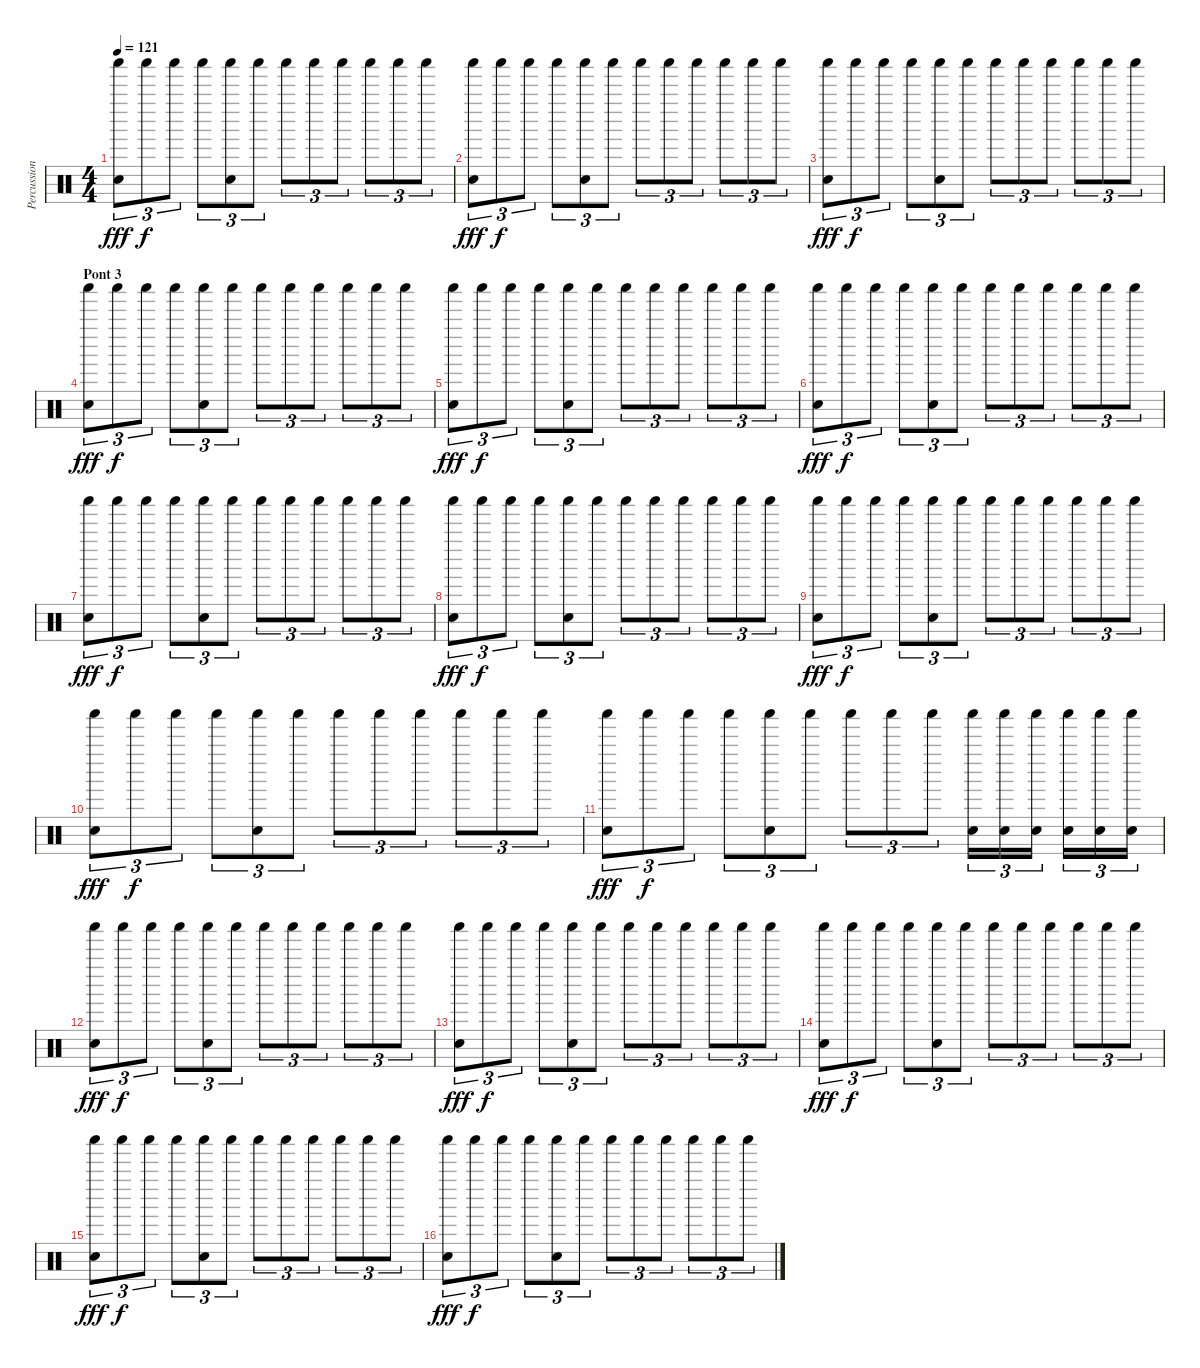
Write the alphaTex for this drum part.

\track ("Percussions" "Percussion") {instrument percussion}
\staff {score}
\articulation defaults
\ts (4 4)
\tempo 121
\clef neutral
\ks c
("Shaker (hit)" "Electric Snare (hit)").8{tu (3 2) dy fff} "Shaker (hit)".8{tu (3 2) dy f} "Shaker (hit)".8{tu (3 2)} "Shaker (hit)".8{tu (3 2)} ("Shaker (hit)" "Electric Snare (hit)").8{tu (3 2)} "Shaker (hit)".8{tu (3 2)} "Shaker (hit)".8{tu (3 2)} "Shaker (hit)".8{tu (3 2)} "Shaker (hit)".8{tu (3 2)} "Shaker (hit)".8{tu (3 2)} "Shaker (hit)".8{tu (3 2)} "Shaker (hit)".8{tu (3 2)} |
("Shaker (hit)" "Electric Snare (hit)").8{tu (3 2) dy fff} "Shaker (hit)".8{tu (3 2) dy f} "Shaker (hit)".8{tu (3 2)} "Shaker (hit)".8{tu (3 2)} ("Shaker (hit)" "Electric Snare (hit)").8{tu (3 2)} "Shaker (hit)".8{tu (3 2)} "Shaker (hit)".8{tu (3 2)} "Shaker (hit)".8{tu (3 2)} "Shaker (hit)".8{tu (3 2)} "Shaker (hit)".8{tu (3 2)} "Shaker (hit)".8{tu (3 2)} "Shaker (hit)".8{tu (3 2)} |
("Shaker (hit)" "Electric Snare (hit)").8{tu (3 2) dy fff} "Shaker (hit)".8{tu (3 2) dy f} "Shaker (hit)".8{tu (3 2)} "Shaker (hit)".8{tu (3 2)} ("Shaker (hit)" "Electric Snare (hit)").8{tu (3 2)} "Shaker (hit)".8{tu (3 2)} "Shaker (hit)".8{tu (3 2)} "Shaker (hit)".8{tu (3 2)} "Shaker (hit)".8{tu (3 2)} "Shaker (hit)".8{tu (3 2)} "Shaker (hit)".8{tu (3 2)} "Shaker (hit)".8{tu (3 2)} |
\section ("" "Pont 3")
("Shaker (hit)" "Electric Snare (hit)").8{tu (3 2) dy fff} "Shaker (hit)".8{tu (3 2) dy f} "Shaker (hit)".8{tu (3 2)} "Shaker (hit)".8{tu (3 2)} ("Shaker (hit)" "Electric Snare (hit)").8{tu (3 2)} "Shaker (hit)".8{tu (3 2)} "Shaker (hit)".8{tu (3 2)} "Shaker (hit)".8{tu (3 2)} "Shaker (hit)".8{tu (3 2)} "Shaker (hit)".8{tu (3 2)} "Shaker (hit)".8{tu (3 2)} "Shaker (hit)".8{tu (3 2)} |
("Shaker (hit)" "Electric Snare (hit)").8{tu (3 2) dy fff} "Shaker (hit)".8{tu (3 2) dy f} "Shaker (hit)".8{tu (3 2)} "Shaker (hit)".8{tu (3 2)} ("Shaker (hit)" "Electric Snare (hit)").8{tu (3 2)} "Shaker (hit)".8{tu (3 2)} "Shaker (hit)".8{tu (3 2)} "Shaker (hit)".8{tu (3 2)} "Shaker (hit)".8{tu (3 2)} "Shaker (hit)".8{tu (3 2)} "Shaker (hit)".8{tu (3 2)} "Shaker (hit)".8{tu (3 2)} |
("Shaker (hit)" "Electric Snare (hit)").8{tu (3 2) dy fff} "Shaker (hit)".8{tu (3 2) dy f} "Shaker (hit)".8{tu (3 2)} "Shaker (hit)".8{tu (3 2)} ("Shaker (hit)" "Electric Snare (hit)").8{tu (3 2)} "Shaker (hit)".8{tu (3 2)} "Shaker (hit)".8{tu (3 2)} "Shaker (hit)".8{tu (3 2)} "Shaker (hit)".8{tu (3 2)} "Shaker (hit)".8{tu (3 2)} "Shaker (hit)".8{tu (3 2)} "Shaker (hit)".8{tu (3 2)} |
("Shaker (hit)" "Electric Snare (hit)").8{tu (3 2) dy fff} "Shaker (hit)".8{tu (3 2) dy f} "Shaker (hit)".8{tu (3 2)} "Shaker (hit)".8{tu (3 2)} ("Shaker (hit)" "Electric Snare (hit)").8{tu (3 2)} "Shaker (hit)".8{tu (3 2)} "Shaker (hit)".8{tu (3 2)} "Shaker (hit)".8{tu (3 2)} "Shaker (hit)".8{tu (3 2)} "Shaker (hit)".8{tu (3 2)} "Shaker (hit)".8{tu (3 2)} "Shaker (hit)".8{tu (3 2)} |
("Shaker (hit)" "Electric Snare (hit)").8{tu (3 2) dy fff} "Shaker (hit)".8{tu (3 2) dy f} "Shaker (hit)".8{tu (3 2)} "Shaker (hit)".8{tu (3 2)} ("Shaker (hit)" "Electric Snare (hit)").8{tu (3 2)} "Shaker (hit)".8{tu (3 2)} "Shaker (hit)".8{tu (3 2)} "Shaker (hit)".8{tu (3 2)} "Shaker (hit)".8{tu (3 2)} "Shaker (hit)".8{tu (3 2)} "Shaker (hit)".8{tu (3 2)} "Shaker (hit)".8{tu (3 2)} |
("Shaker (hit)" "Electric Snare (hit)").8{tu (3 2) dy fff} "Shaker (hit)".8{tu (3 2) dy f} "Shaker (hit)".8{tu (3 2)} "Shaker (hit)".8{tu (3 2)} ("Shaker (hit)" "Electric Snare (hit)").8{tu (3 2)} "Shaker (hit)".8{tu (3 2)} "Shaker (hit)".8{tu (3 2)} "Shaker (hit)".8{tu (3 2)} "Shaker (hit)".8{tu (3 2)} "Shaker (hit)".8{tu (3 2)} "Shaker (hit)".8{tu (3 2)} "Shaker (hit)".8{tu (3 2)} |
("Shaker (hit)" "Electric Snare (hit)").8{tu (3 2) dy fff} "Shaker (hit)".8{tu (3 2) dy f} "Shaker (hit)".8{tu (3 2)} "Shaker (hit)".8{tu (3 2)} ("Shaker (hit)" "Electric Snare (hit)").8{tu (3 2)} "Shaker (hit)".8{tu (3 2)} "Shaker (hit)".8{tu (3 2)} "Shaker (hit)".8{tu (3 2)} "Shaker (hit)".8{tu (3 2)} "Shaker (hit)".8{tu (3 2)} "Shaker (hit)".8{tu (3 2)} "Shaker (hit)".8{tu (3 2)} |
("Shaker (hit)" "Electric Snare (hit)").8{tu (3 2) dy fff} "Shaker (hit)".8{tu (3 2) dy f} "Shaker (hit)".8{tu (3 2)} "Shaker (hit)".8{tu (3 2)} ("Shaker (hit)" "Electric Snare (hit)").8{tu (3 2)} "Shaker (hit)".8{tu (3 2)} "Shaker (hit)".8{tu (3 2)} "Shaker (hit)".8{tu (3 2)} "Shaker (hit)".8{tu (3 2)} ("Shaker (hit)" "Electric Snare (hit)").16{tu (3 2)} ("Shaker (hit)" "Electric Snare (hit)").16{tu (3 2)} ("Shaker (hit)" "Electric Snare (hit)").16{tu (3 2)} ("Shaker (hit)" "Electric Snare (hit)").16{tu (3 2)} ("Shaker (hit)" "Electric Snare (hit)").16{tu (3 2)} ("Shaker (hit)" "Electric Snare (hit)").16{tu (3 2)} |
("Shaker (hit)" "Electric Snare (hit)").8{tu (3 2) dy fff} "Shaker (hit)".8{tu (3 2) dy f} "Shaker (hit)".8{tu (3 2)} "Shaker (hit)".8{tu (3 2)} ("Shaker (hit)" "Electric Snare (hit)").8{tu (3 2)} "Shaker (hit)".8{tu (3 2)} "Shaker (hit)".8{tu (3 2)} "Shaker (hit)".8{tu (3 2)} "Shaker (hit)".8{tu (3 2)} "Shaker (hit)".8{tu (3 2)} "Shaker (hit)".8{tu (3 2)} "Shaker (hit)".8{tu (3 2)} |
("Shaker (hit)" "Electric Snare (hit)").8{tu (3 2) dy fff} "Shaker (hit)".8{tu (3 2) dy f} "Shaker (hit)".8{tu (3 2)} "Shaker (hit)".8{tu (3 2)} ("Shaker (hit)" "Electric Snare (hit)").8{tu (3 2)} "Shaker (hit)".8{tu (3 2)} "Shaker (hit)".8{tu (3 2)} "Shaker (hit)".8{tu (3 2)} "Shaker (hit)".8{tu (3 2)} "Shaker (hit)".8{tu (3 2)} "Shaker (hit)".8{tu (3 2)} "Shaker (hit)".8{tu (3 2)} |
("Shaker (hit)" "Electric Snare (hit)").8{tu (3 2) dy fff} "Shaker (hit)".8{tu (3 2) dy f} "Shaker (hit)".8{tu (3 2)} "Shaker (hit)".8{tu (3 2)} ("Shaker (hit)" "Electric Snare (hit)").8{tu (3 2)} "Shaker (hit)".8{tu (3 2)} "Shaker (hit)".8{tu (3 2)} "Shaker (hit)".8{tu (3 2)} "Shaker (hit)".8{tu (3 2)} "Shaker (hit)".8{tu (3 2)} "Shaker (hit)".8{tu (3 2)} "Shaker (hit)".8{tu (3 2)} |
("Shaker (hit)" "Electric Snare (hit)").8{tu (3 2) dy fff} "Shaker (hit)".8{tu (3 2) dy f} "Shaker (hit)".8{tu (3 2)} "Shaker (hit)".8{tu (3 2)} ("Shaker (hit)" "Electric Snare (hit)").8{tu (3 2)} "Shaker (hit)".8{tu (3 2)} "Shaker (hit)".8{tu (3 2)} "Shaker (hit)".8{tu (3 2)} "Shaker (hit)".8{tu (3 2)} "Shaker (hit)".8{tu (3 2)} "Shaker (hit)".8{tu (3 2)} "Shaker (hit)".8{tu (3 2)} |
("Shaker (hit)" "Electric Snare (hit)").8{tu (3 2) dy fff} "Shaker (hit)".8{tu (3 2) dy f} "Shaker (hit)".8{tu (3 2)} "Shaker (hit)".8{tu (3 2)} ("Shaker (hit)" "Electric Snare (hit)").8{tu (3 2)} "Shaker (hit)".8{tu (3 2)} "Shaker (hit)".8{tu (3 2)} "Shaker (hit)".8{tu (3 2)} "Shaker (hit)".8{tu (3 2)} "Shaker (hit)".8{tu (3 2)} "Shaker (hit)".8{tu (3 2)} "Shaker (hit)".8{tu (3 2)}
